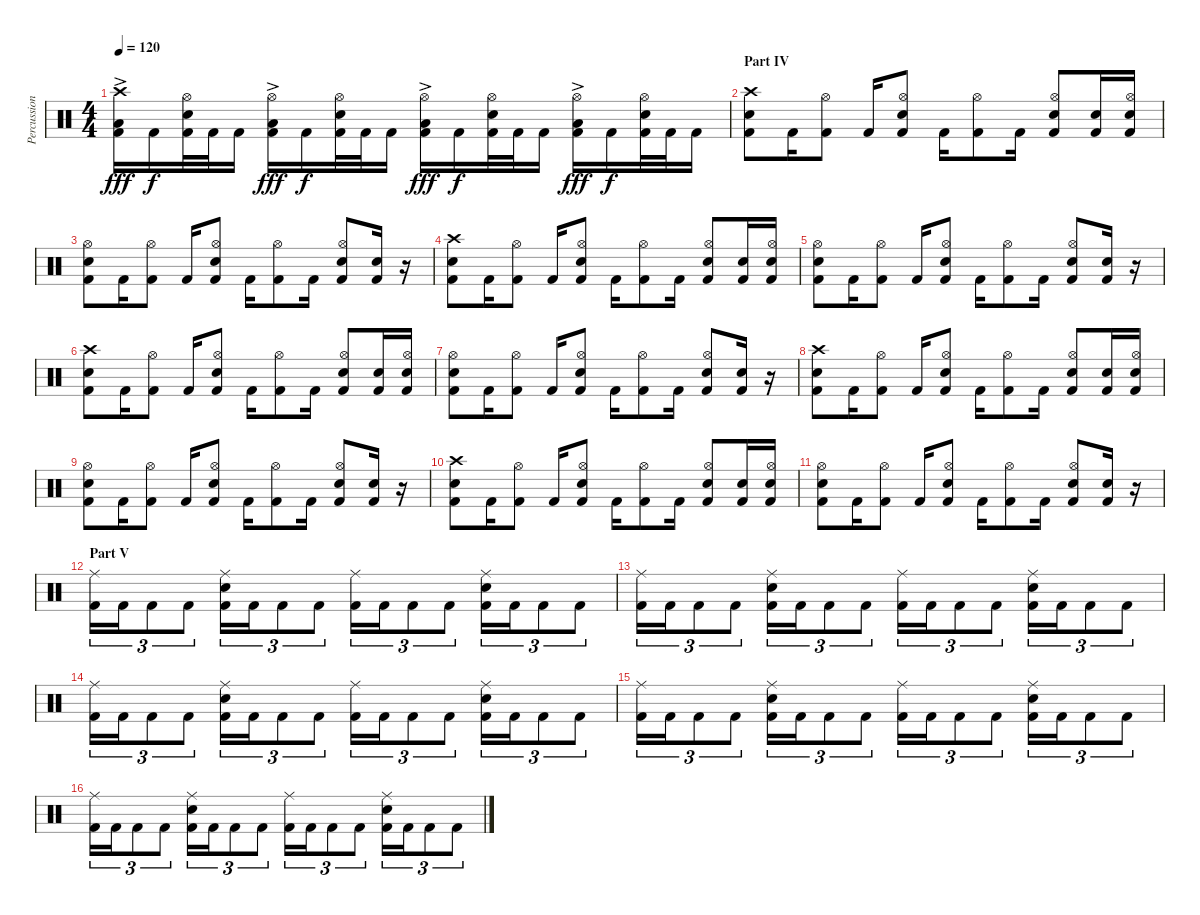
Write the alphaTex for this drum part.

\track ("Percussion" "Percussion") {instrument percussion}
\staff {score}
\articulation defaults
\ts (4 4)
\tempo 120
\clef neutral
\ks c
("Crash high (hit)" "Low Floor Tom (hit)"{ac} "Kick (hit) 2").16{dy fff} "Kick (hit) 2".16{dy f} ("Hi-Hat (open)" "Electric Snare (hit)" "Kick (hit) 2").32 "Kick (hit) 2".32 "Kick (hit) 2".16 ("Hi-Hat (open)" "Low Floor Tom (hit)"{ac} "Kick (hit) 2").16{dy fff} "Kick (hit) 2".16{dy f} ("Hi-Hat (open)" "Electric Snare (hit)" "Kick (hit) 2").32 "Kick (hit) 2".32 "Kick (hit) 2".16 ("Hi-Hat (open)" "Low Floor Tom (hit)"{ac} "Kick (hit) 2").16{dy fff} "Kick (hit) 2".16{dy f} ("Hi-Hat (open)" "Electric Snare (hit)" "Kick (hit) 2").32 "Kick (hit) 2".32 "Kick (hit) 2".16 ("Hi-Hat (open)" "Low Floor Tom (hit)"{ac} "Kick (hit) 2").16{dy fff} "Kick (hit) 2".16{dy f} ("Hi-Hat (open)" "Electric Snare (hit)" "Kick (hit) 2").32 "Kick (hit) 2".32 "Kick (hit) 2".16 |
\section ("" "Part IV")
("Crash high (hit)" "Electric Snare (hit)" "Kick (hit) 2").8 "Kick (hit) 2".16 ("Hi-Hat (open)" "Kick (hit) 2").8 "Kick (hit) 2".16 ("Hi-Hat (open)" "Electric Snare (hit)" "Kick (hit) 2").8 "Kick (hit) 2".16 ("Hi-Hat (open)" "Kick (hit) 2").8 "Kick (hit) 2".16 ("Hi-Hat (open)" "Electric Snare (hit)" "Kick (hit) 2").8 ("Electric Snare (hit)" "Kick (hit) 2").16 ("Hi-Hat (open)" "Electric Snare (hit)" "Kick (hit) 2").16 |
("Hi-Hat (open)" "Electric Snare (hit)" "Kick (hit) 2").8 "Kick (hit) 2".16 ("Hi-Hat (open)" "Kick (hit) 2").8 "Kick (hit) 2".16 ("Hi-Hat (open)" "Electric Snare (hit)" "Kick (hit) 2").8 "Kick (hit) 2".16 ("Hi-Hat (open)" "Kick (hit) 2").8 "Kick (hit) 2".16 ("Hi-Hat (open)" "Electric Snare (hit)" "Kick (hit) 2").8 ("Electric Snare (hit)" "Kick (hit) 2").16 r.16 |
("Crash high (hit)" "Electric Snare (hit)" "Kick (hit) 2").8 "Kick (hit) 2".16 ("Hi-Hat (open)" "Kick (hit) 2").8 "Kick (hit) 2".16 ("Hi-Hat (open)" "Electric Snare (hit)" "Kick (hit) 2").8 "Kick (hit) 2".16 ("Hi-Hat (open)" "Kick (hit) 2").8 "Kick (hit) 2".16 ("Hi-Hat (open)" "Electric Snare (hit)" "Kick (hit) 2").8 ("Electric Snare (hit)" "Kick (hit) 2").16 ("Hi-Hat (open)" "Electric Snare (hit)" "Kick (hit) 2").16 |
("Hi-Hat (open)" "Electric Snare (hit)" "Kick (hit) 2").8 "Kick (hit) 2".16 ("Hi-Hat (open)" "Kick (hit) 2").8 "Kick (hit) 2".16 ("Hi-Hat (open)" "Electric Snare (hit)" "Kick (hit) 2").8 "Kick (hit) 2".16 ("Hi-Hat (open)" "Kick (hit) 2").8 "Kick (hit) 2".16 ("Hi-Hat (open)" "Electric Snare (hit)" "Kick (hit) 2").8 ("Electric Snare (hit)" "Kick (hit) 2").16 r.16 |
("Crash high (hit)" "Electric Snare (hit)" "Kick (hit) 2").8 "Kick (hit) 2".16 ("Hi-Hat (open)" "Kick (hit) 2").8 "Kick (hit) 2".16 ("Hi-Hat (open)" "Electric Snare (hit)" "Kick (hit) 2").8 "Kick (hit) 2".16 ("Hi-Hat (open)" "Kick (hit) 2").8 "Kick (hit) 2".16 ("Hi-Hat (open)" "Electric Snare (hit)" "Kick (hit) 2").8 ("Electric Snare (hit)" "Kick (hit) 2").16 ("Hi-Hat (open)" "Electric Snare (hit)" "Kick (hit) 2").16 |
("Hi-Hat (open)" "Electric Snare (hit)" "Kick (hit) 2").8 "Kick (hit) 2".16 ("Hi-Hat (open)" "Kick (hit) 2").8 "Kick (hit) 2".16 ("Hi-Hat (open)" "Electric Snare (hit)" "Kick (hit) 2").8 "Kick (hit) 2".16 ("Hi-Hat (open)" "Kick (hit) 2").8 "Kick (hit) 2".16 ("Hi-Hat (open)" "Electric Snare (hit)" "Kick (hit) 2").8 ("Electric Snare (hit)" "Kick (hit) 2").16 r.16 |
("Crash high (hit)" "Electric Snare (hit)" "Kick (hit) 2").8 "Kick (hit) 2".16 ("Hi-Hat (open)" "Kick (hit) 2").8 "Kick (hit) 2".16 ("Hi-Hat (open)" "Electric Snare (hit)" "Kick (hit) 2").8 "Kick (hit) 2".16 ("Hi-Hat (open)" "Kick (hit) 2").8 "Kick (hit) 2".16 ("Hi-Hat (open)" "Electric Snare (hit)" "Kick (hit) 2").8 ("Electric Snare (hit)" "Kick (hit) 2").16 ("Hi-Hat (open)" "Electric Snare (hit)" "Kick (hit) 2").16 |
("Hi-Hat (open)" "Electric Snare (hit)" "Kick (hit) 2").8 "Kick (hit) 2".16 ("Hi-Hat (open)" "Kick (hit) 2").8 "Kick (hit) 2".16 ("Hi-Hat (open)" "Electric Snare (hit)" "Kick (hit) 2").8 "Kick (hit) 2".16 ("Hi-Hat (open)" "Kick (hit) 2").8 "Kick (hit) 2".16 ("Hi-Hat (open)" "Electric Snare (hit)" "Kick (hit) 2").8 ("Electric Snare (hit)" "Kick (hit) 2").16 r.16 |
("Crash high (hit)" "Electric Snare (hit)" "Kick (hit) 2").8 "Kick (hit) 2".16 ("Hi-Hat (open)" "Kick (hit) 2").8 "Kick (hit) 2".16 ("Hi-Hat (open)" "Electric Snare (hit)" "Kick (hit) 2").8 "Kick (hit) 2".16 ("Hi-Hat (open)" "Kick (hit) 2").8 "Kick (hit) 2".16 ("Hi-Hat (open)" "Electric Snare (hit)" "Kick (hit) 2").8 ("Electric Snare (hit)" "Kick (hit) 2").16 ("Hi-Hat (open)" "Electric Snare (hit)" "Kick (hit) 2").16 |
("Hi-Hat (open)" "Electric Snare (hit)" "Kick (hit) 2").8 "Kick (hit) 2".16 ("Hi-Hat (open)" "Kick (hit) 2").8 "Kick (hit) 2".16 ("Hi-Hat (open)" "Electric Snare (hit)" "Kick (hit) 2").8 "Kick (hit) 2".16 ("Hi-Hat (open)" "Kick (hit) 2").8 "Kick (hit) 2".16 ("Hi-Hat (open)" "Electric Snare (hit)" "Kick (hit) 2").8 ("Electric Snare (hit)" "Kick (hit) 2").16 r.16 |
\section ("" "Part V")
("Ride (middle)" "Kick (hit) 2").16{tu (3 2)} "Kick (hit) 2".16{tu (3 2)} "Kick (hit) 2".8{tu (3 2)} "Kick (hit) 2".8{tu (3 2)} ("Ride (middle)" "Electric Snare (hit)" "Kick (hit) 2").16{tu (3 2)} "Kick (hit) 2".16{tu (3 2)} "Kick (hit) 2".8{tu (3 2)} "Kick (hit) 2".8{tu (3 2)} ("Ride (middle)" "Kick (hit) 2").16{tu (3 2)} "Kick (hit) 2".16{tu (3 2)} "Kick (hit) 2".8{tu (3 2)} "Kick (hit) 2".8{tu (3 2)} ("Ride (middle)" "Electric Snare (hit)" "Kick (hit) 2").16{tu (3 2)} "Kick (hit) 2".16{tu (3 2)} "Kick (hit) 2".8{tu (3 2)} "Kick (hit) 2".8{tu (3 2)} |
("Ride (middle)" "Kick (hit) 2").16{tu (3 2)} "Kick (hit) 2".16{tu (3 2)} "Kick (hit) 2".8{tu (3 2)} "Kick (hit) 2".8{tu (3 2)} ("Ride (middle)" "Electric Snare (hit)" "Kick (hit) 2").16{tu (3 2)} "Kick (hit) 2".16{tu (3 2)} "Kick (hit) 2".8{tu (3 2)} "Kick (hit) 2".8{tu (3 2)} ("Ride (middle)" "Kick (hit) 2").16{tu (3 2)} "Kick (hit) 2".16{tu (3 2)} "Kick (hit) 2".8{tu (3 2)} "Kick (hit) 2".8{tu (3 2)} ("Ride (middle)" "Electric Snare (hit)" "Kick (hit) 2").16{tu (3 2)} "Kick (hit) 2".16{tu (3 2)} "Kick (hit) 2".8{tu (3 2)} "Kick (hit) 2".8{tu (3 2)} |
("Ride (middle)" "Kick (hit) 2").16{tu (3 2)} "Kick (hit) 2".16{tu (3 2)} "Kick (hit) 2".8{tu (3 2)} "Kick (hit) 2".8{tu (3 2)} ("Ride (middle)" "Electric Snare (hit)" "Kick (hit) 2").16{tu (3 2)} "Kick (hit) 2".16{tu (3 2)} "Kick (hit) 2".8{tu (3 2)} "Kick (hit) 2".8{tu (3 2)} ("Ride (middle)" "Kick (hit) 2").16{tu (3 2)} "Kick (hit) 2".16{tu (3 2)} "Kick (hit) 2".8{tu (3 2)} "Kick (hit) 2".8{tu (3 2)} ("Ride (middle)" "Electric Snare (hit)" "Kick (hit) 2").16{tu (3 2)} "Kick (hit) 2".16{tu (3 2)} "Kick (hit) 2".8{tu (3 2)} "Kick (hit) 2".8{tu (3 2)} |
("Ride (middle)" "Kick (hit) 2").16{tu (3 2)} "Kick (hit) 2".16{tu (3 2)} "Kick (hit) 2".8{tu (3 2)} "Kick (hit) 2".8{tu (3 2)} ("Ride (middle)" "Electric Snare (hit)" "Kick (hit) 2").16{tu (3 2)} "Kick (hit) 2".16{tu (3 2)} "Kick (hit) 2".8{tu (3 2)} "Kick (hit) 2".8{tu (3 2)} ("Ride (middle)" "Kick (hit) 2").16{tu (3 2)} "Kick (hit) 2".16{tu (3 2)} "Kick (hit) 2".8{tu (3 2)} "Kick (hit) 2".8{tu (3 2)} ("Ride (middle)" "Electric Snare (hit)" "Kick (hit) 2").16{tu (3 2)} "Kick (hit) 2".16{tu (3 2)} "Kick (hit) 2".8{tu (3 2)} "Kick (hit) 2".8{tu (3 2)} |
("Ride (middle)" "Kick (hit) 2").16{tu (3 2)} "Kick (hit) 2".16{tu (3 2)} "Kick (hit) 2".8{tu (3 2)} "Kick (hit) 2".8{tu (3 2)} ("Ride (middle)" "Electric Snare (hit)" "Kick (hit) 2").16{tu (3 2)} "Kick (hit) 2".16{tu (3 2)} "Kick (hit) 2".8{tu (3 2)} "Kick (hit) 2".8{tu (3 2)} ("Ride (middle)" "Kick (hit) 2").16{tu (3 2)} "Kick (hit) 2".16{tu (3 2)} "Kick (hit) 2".8{tu (3 2)} "Kick (hit) 2".8{tu (3 2)} ("Ride (middle)" "Electric Snare (hit)" "Kick (hit) 2").16{tu (3 2)} "Kick (hit) 2".16{tu (3 2)} "Kick (hit) 2".8{tu (3 2)} "Kick (hit) 2".8{tu (3 2)}
